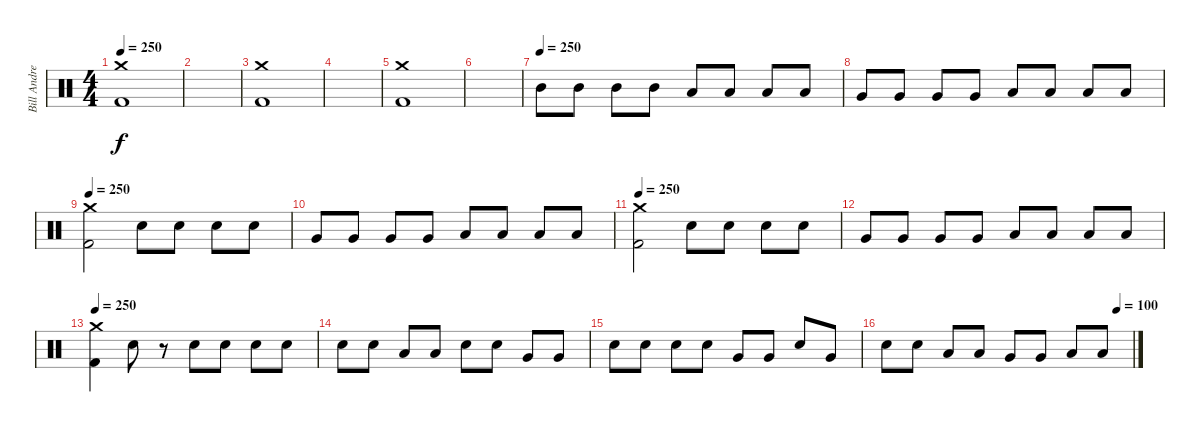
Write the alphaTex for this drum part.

\track ("Bill Andrews" "Bill Andre") {instrument percussion}
\staff {score}
\articulation defaults
\ts (4 4)
\tempo 250
\clef neutral
\ks c
("Crash medium (hit)" "Kick (hit) 2").1{dy f} |
|
("Kick (hit) 2" "Crash medium (hit)").1 |
|
("Crash medium (hit)" "Kick (hit) 2").1 |
|
\tempo (250)
"Mid Tom (hit)".8 "Mid Tom (hit)".8 "Mid Tom (hit)".8 "Mid Tom (hit)".8 "Low Tom (hit)".8 "Low Tom (hit)".8 "Low Tom (hit)".8 "Low Tom (hit)".8 |
"Very Low Tom (hit)".8 "Very Low Tom (hit)".8 "Very Low Tom (hit)".8 "Very Low Tom (hit)".8 "Low Floor Tom (hit)".8 "Low Floor Tom (hit)".8 "Low Floor Tom (hit)".8 "Low Floor Tom (hit)".8 |
\tempo 250
("Crash medium (hit)" "Kick (hit) 2").2 "Snare (hit) 2".8 "Snare (hit) 2".8 "Snare (hit) 2".8 "Snare (hit) 2".8 |
"Very Low Tom (hit)".8 "Very Low Tom (hit)".8 "Very Low Tom (hit)".8 "Very Low Tom (hit)".8 "Low Floor Tom (hit)".8 "Low Floor Tom (hit)".8 "Low Floor Tom (hit)".8 "Low Floor Tom (hit)".8 |
\tempo 250
("Crash medium (hit)" "Kick (hit) 2").2 "Snare (hit) 2".8 "Snare (hit) 2".8 "Snare (hit) 2".8 "Snare (hit) 2".8 |
"Very Low Tom (hit)".8 "Very Low Tom (hit)".8 "Very Low Tom (hit)".8 "Very Low Tom (hit)".8 "Low Floor Tom (hit)".8 "Low Floor Tom (hit)".8 "Low Floor Tom (hit)".8 "Low Floor Tom (hit)".8 |
\tempo 250
("Crash medium (hit)" "Kick (hit) 2").4 "Snare (hit) 2".8 r.8 "Snare (hit) 2".8 "Snare (hit) 2".8 "Snare (hit) 2".8 "Snare (hit) 2".8 |
"Snare (hit) 2".8 "Snare (hit) 2".8 "Low Tom (hit)".8 "Low Tom (hit)".8 "Snare (hit) 2".8 "Snare (hit) 2".8 "Very Low Tom (hit)".8 "Very Low Tom (hit)".8 |
"Snare (hit) 2".8 "Snare (hit) 2".8 "Snare (hit) 2".8 "Snare (hit) 2".8 "Very Low Tom (hit)".8 "Very Low Tom (hit)".8 "Snare (hit) 2".8 "Very Low Tom (hit)".8 |
\tempo (100 0.9375)
"Snare (hit) 2".8 "Snare (hit) 2".8 "Low Tom (hit)".8 "Low Tom (hit)".8 "Very Low Tom (hit)".8 "Very Low Tom (hit)".8 "Low Floor Tom (hit)".8 "Low Floor Tom (hit)".8
